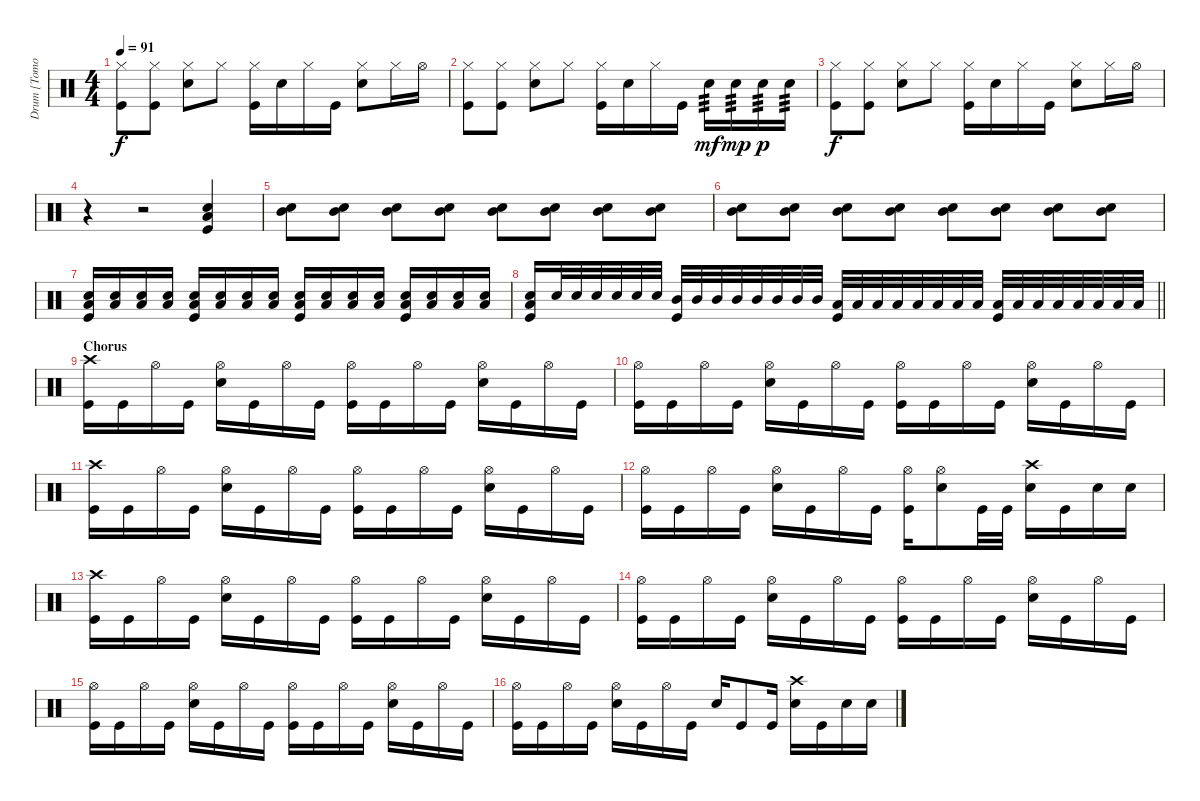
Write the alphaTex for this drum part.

\track ("Drum [Tomoya]" "Drum [Tomo") {instrument percussion}
\staff {score}
\articulation defaults
\ts (4 4)
\tempo 91
\clef neutral
\ks c
("Hi-Hat (closed)" "Kick (hit)").8{dy f} ("Hi-Hat (closed)" "Kick (hit)").8 ("Hi-Hat (closed)" "Snare (hit) 2").8 "Hi-Hat (closed)".8 ("Hi-Hat (closed)" "Kick (hit)").16 "Snare (hit) 2".16 "Hi-Hat (closed)".16 "Kick (hit)".16 ("Hi-Hat (closed)" "Snare (hit) 2").8 "Hi-Hat (closed)".16 "Hi-Hat (open)".16 |
("Hi-Hat (closed)" "Kick (hit)").8 ("Hi-Hat (closed)" "Kick (hit)").8 ("Hi-Hat (closed)" "Snare (hit) 2").8 "Hi-Hat (closed)".8 ("Hi-Hat (closed)" "Kick (hit)").16 "Snare (hit) 2".16 "Hi-Hat (closed)".16 "Kick (hit)".16 "Snare (hit) 2".16{tp 3 dy mf} "Snare (hit) 2".16{tp 3 dy mp} "Snare (hit) 2".16{tp 3 dy p} "Snare (hit) 2".16{tp 3} |
("Hi-Hat (closed)" "Kick (hit)").8{dy f} ("Hi-Hat (closed)" "Kick (hit)").8 ("Hi-Hat (closed)" "Snare (hit) 2").8 "Hi-Hat (closed)".8 ("Hi-Hat (closed)" "Kick (hit)").16 "Snare (hit) 2".16 "Hi-Hat (closed)".16 "Kick (hit)".16 ("Hi-Hat (closed)" "Snare (hit) 2").8 "Hi-Hat (closed)".16 "Hi-Hat (open)".16 |
r.4 r.2 ("Low Floor Tom (hit)" "Snare (hit) 2" "Kick (hit)").4 |
("Mid Tom (hit)" "Snare (hit) 2").8 ("Mid Tom (hit)" "Snare (hit) 2").8 ("Mid Tom (hit)" "Snare (hit) 2").8 ("Mid Tom (hit)" "Snare (hit) 2").8 ("Mid Tom (hit)" "Snare (hit) 2").8 ("Mid Tom (hit)" "Snare (hit) 2").8 ("Mid Tom (hit)" "Snare (hit) 2").8 ("Mid Tom (hit)" "Snare (hit) 2").8 |
("Mid Tom (hit)" "Snare (hit) 2").8 ("Mid Tom (hit)" "Snare (hit) 2").8 ("Mid Tom (hit)" "Snare (hit) 2").8 ("Mid Tom (hit)" "Snare (hit) 2").8 ("Mid Tom (hit)" "Snare (hit) 2").8 ("Mid Tom (hit)" "Snare (hit) 2").8 ("Mid Tom (hit)" "Snare (hit) 2").8 ("Mid Tom (hit)" "Snare (hit) 2").8 |
("Low Floor Tom (hit)" "Snare (hit) 2" "Kick (hit)").16 ("Low Floor Tom (hit)" "Snare (hit) 2").16 ("Low Floor Tom (hit)" "Snare (hit) 2").16 ("Low Floor Tom (hit)" "Snare (hit) 2").16 ("Low Floor Tom (hit)" "Snare (hit) 2" "Kick (hit)").16 ("Low Floor Tom (hit)" "Snare (hit) 2").16 ("Low Floor Tom (hit)" "Snare (hit) 2").16 ("Low Floor Tom (hit)" "Snare (hit) 2").16 ("Low Floor Tom (hit)" "Snare (hit) 2" "Kick (hit)").16 ("Low Floor Tom (hit)" "Snare (hit) 2").16 ("Low Floor Tom (hit)" "Snare (hit) 2").16 ("Low Floor Tom (hit)" "Snare (hit) 2").16 ("Low Floor Tom (hit)" "Snare (hit) 2" "Kick (hit)").16 ("Low Floor Tom (hit)" "Snare (hit) 2").16 ("Low Floor Tom (hit)" "Snare (hit) 2").16 ("Low Floor Tom (hit)" "Snare (hit) 2").16 |
\barLineRight lightlight
("Snare (hit) 2" "Low Floor Tom (hit)" "Kick (hit)").16 "Snare (hit) 2".32 "Snare (hit) 2".32 "Snare (hit) 2".32 "Snare (hit) 2".32 "Snare (hit) 2".32 "Snare (hit) 2".32 ("Mid Tom (hit)" "Kick (hit)").32 "Mid Tom (hit)".32 "Mid Tom (hit)".32 "Mid Tom (hit)".32 "Mid Tom (hit)".32 "Mid Tom (hit)".32 "Mid Tom (hit)".32 "Mid Tom (hit)".32 ("Low Tom (hit)" "Kick (hit)").32 "Low Tom (hit)".32 "Low Tom (hit)".32 "Low Tom (hit)".32 "Low Tom (hit)".32 "Low Tom (hit)".32 "Low Tom (hit)".32 "Low Tom (hit)".32 ("Low Floor Tom (hit)" "Kick (hit)").32 "Low Floor Tom (hit)".32 "Low Floor Tom (hit)".32 "Low Floor Tom (hit)".32 "Low Floor Tom (hit)".32 "Low Floor Tom (hit)".32 "Low Floor Tom (hit)".32 "Low Floor Tom (hit)".32 |
\section ("" "Chorus")
("Crash high (hit)" "Kick (hit)").16 "Kick (hit)".16 "Hi-Hat (open)".16 "Kick (hit)".16 ("Hi-Hat (open)" "Snare (hit) 2").16 "Kick (hit)".16 "Hi-Hat (open)".16 "Kick (hit)".16 ("Hi-Hat (open)" "Kick (hit)").16 "Kick (hit)".16 "Hi-Hat (open)".16 "Kick (hit)".16 ("Hi-Hat (open)" "Snare (hit) 2").16 "Kick (hit)".16 "Hi-Hat (open)".16 "Kick (hit)".16 |
("Hi-Hat (open)" "Kick (hit)").16 "Kick (hit)".16 "Hi-Hat (open)".16 "Kick (hit)".16 ("Hi-Hat (open)" "Snare (hit) 2").16 "Kick (hit)".16 "Hi-Hat (open)".16 "Kick (hit)".16 ("Hi-Hat (open)" "Kick (hit)").16 "Kick (hit)".16 "Hi-Hat (open)".16 "Kick (hit)".16 ("Hi-Hat (open)" "Snare (hit) 2").16 "Kick (hit)".16 "Hi-Hat (open)".16 "Kick (hit)".16 |
("Crash high (hit)" "Kick (hit)").16 "Kick (hit)".16 "Hi-Hat (open)".16 "Kick (hit)".16 ("Hi-Hat (open)" "Snare (hit) 2").16 "Kick (hit)".16 "Hi-Hat (open)".16 "Kick (hit)".16 ("Hi-Hat (open)" "Kick (hit)").16 "Kick (hit)".16 "Hi-Hat (open)".16 "Kick (hit)".16 ("Hi-Hat (open)" "Snare (hit) 2").16 "Kick (hit)".16 "Hi-Hat (open)".16 "Kick (hit)".16 |
("Hi-Hat (open)" "Kick (hit)").16 "Kick (hit)".16 "Hi-Hat (open)".16 "Kick (hit)".16 ("Hi-Hat (open)" "Snare (hit) 2").16 "Kick (hit)".16 "Hi-Hat (open)".16 "Kick (hit)".16 ("Hi-Hat (open)" "Kick (hit)").16 ("Hi-Hat (open)" "Snare (hit) 2").8 "Kick (hit)".32 "Kick (hit)".32 ("Crash high (hit)" "Snare (hit) 2").16 "Kick (hit)".16 "Snare (hit) 2".16 "Snare (hit) 2".16 |
("Crash high (hit)" "Kick (hit)").16 "Kick (hit)".16 "Hi-Hat (open)".16 "Kick (hit)".16 ("Hi-Hat (open)" "Snare (hit) 2").16 "Kick (hit)".16 "Hi-Hat (open)".16 "Kick (hit)".16 ("Hi-Hat (open)" "Kick (hit)").16 "Kick (hit)".16 "Hi-Hat (open)".16 "Kick (hit)".16 ("Hi-Hat (open)" "Snare (hit) 2").16 "Kick (hit)".16 "Hi-Hat (open)".16 "Kick (hit)".16 |
("Hi-Hat (open)" "Kick (hit)").16 "Kick (hit)".16 "Hi-Hat (open)".16 "Kick (hit)".16 ("Hi-Hat (open)" "Snare (hit) 2").16 "Kick (hit)".16 "Hi-Hat (open)".16 "Kick (hit)".16 ("Hi-Hat (open)" "Kick (hit)").16 "Kick (hit)".16 "Hi-Hat (open)".16 "Kick (hit)".16 ("Hi-Hat (open)" "Snare (hit) 2").16 "Kick (hit)".16 "Hi-Hat (open)".16 "Kick (hit)".16 |
("Hi-Hat (open)" "Kick (hit)").16 "Kick (hit)".16 "Hi-Hat (open)".16 "Kick (hit)".16 ("Hi-Hat (open)" "Snare (hit) 2").16 "Kick (hit)".16 "Hi-Hat (open)".16 "Kick (hit)".16 ("Hi-Hat (open)" "Kick (hit)").16 "Kick (hit)".16 "Hi-Hat (open)".16 "Kick (hit)".16 ("Hi-Hat (open)" "Snare (hit) 2").16 "Kick (hit)".16 "Hi-Hat (open)".16 "Kick (hit)".16 |
("Hi-Hat (open)" "Kick (hit)").16 "Kick (hit)".16 "Hi-Hat (open)".16 "Kick (hit)".16 ("Hi-Hat (open)" "Snare (hit) 2").16 "Kick (hit)".16 "Hi-Hat (open)".16 "Kick (hit)".16 "Snare (hit) 2".16 "Kick (hit)".8 "Kick (hit)".16 ("Crash high (hit)" "Snare (hit) 2").16 "Kick (hit)".16 "Snare (hit) 2".16 "Snare (hit) 2".16
